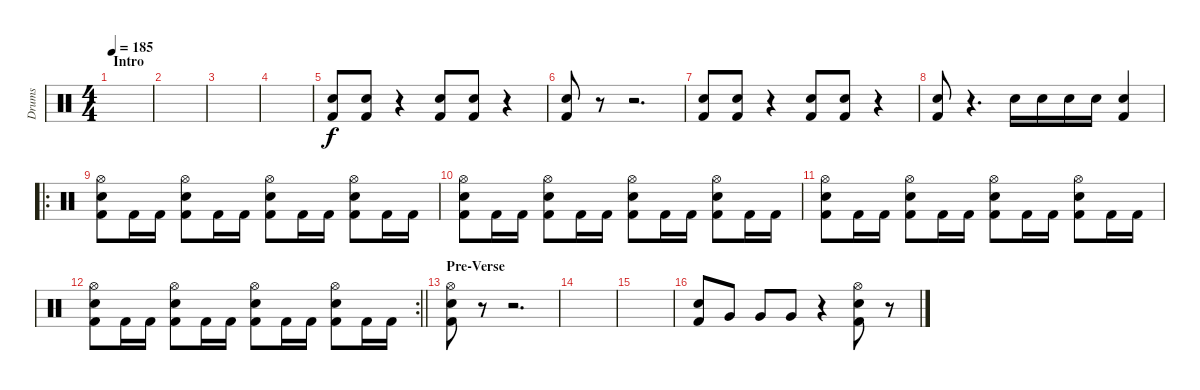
\track ("Drums" "Drums") {instrument percussion}
\staff {score}
\articulation defaults
\ts (4 4)
\section ("" "Intro")
\tempo 185
\clef neutral
\ks c
|
|
|
|
("Snare (hit) 2" "Kick (hit) 2").8 ("Snare (hit) 2" "Kick (hit) 2").8 r.4 ("Snare (hit) 2" "Kick (hit) 2").8 ("Snare (hit) 2" "Kick (hit) 2").8 r.4 |
("Snare (hit) 2" "Kick (hit) 2").8 r.8 r.2{d} |
("Snare (hit) 2" "Kick (hit) 2").8 ("Snare (hit) 2" "Kick (hit) 2").8 r.4 ("Snare (hit) 2" "Kick (hit) 2").8 ("Snare (hit) 2" "Kick (hit) 2").8 r.4 |
("Snare (hit) 2" "Kick (hit) 2").8 r.4{d} "Snare (hit) 2".16 "Snare (hit) 2".16 "Snare (hit) 2".16 "Snare (hit) 2".16 ("Snare (hit) 2" "Kick (hit) 2").4 |
\ro
("Hi-Hat (open)" "Snare (hit) 2" "Kick (hit) 2").8 "Kick (hit) 2".16 "Kick (hit) 2".16 ("Hi-Hat (open)" "Snare (hit) 2" "Kick (hit) 2").8 "Kick (hit) 2".16 "Kick (hit) 2".16 ("Hi-Hat (open)" "Snare (hit) 2" "Kick (hit) 2").8 "Kick (hit) 2".16 "Kick (hit) 2".16 ("Hi-Hat (open)" "Snare (hit) 2" "Kick (hit) 2").8 "Kick (hit) 2".16 "Kick (hit) 2".16 |
("Hi-Hat (open)" "Snare (hit) 2" "Kick (hit) 2").8 "Kick (hit) 2".16 "Kick (hit) 2".16 ("Hi-Hat (open)" "Snare (hit) 2" "Kick (hit) 2").8 "Kick (hit) 2".16 "Kick (hit) 2".16 ("Hi-Hat (open)" "Snare (hit) 2" "Kick (hit) 2").8 "Kick (hit) 2".16 "Kick (hit) 2".16 ("Hi-Hat (open)" "Snare (hit) 2" "Kick (hit) 2").8 "Kick (hit) 2".16 "Kick (hit) 2".16 |
("Hi-Hat (open)" "Snare (hit) 2" "Kick (hit) 2").8 "Kick (hit) 2".16 "Kick (hit) 2".16 ("Hi-Hat (open)" "Snare (hit) 2" "Kick (hit) 2").8 "Kick (hit) 2".16 "Kick (hit) 2".16 ("Hi-Hat (open)" "Snare (hit) 2" "Kick (hit) 2").8 "Kick (hit) 2".16 "Kick (hit) 2".16 ("Hi-Hat (open)" "Snare (hit) 2" "Kick (hit) 2").8 "Kick (hit) 2".16 "Kick (hit) 2".16 |
\rc 2
\barLineRight lightlight
("Hi-Hat (open)" "Snare (hit) 2" "Kick (hit) 2").8 "Kick (hit) 2".16 "Kick (hit) 2".16 ("Hi-Hat (open)" "Snare (hit) 2" "Kick (hit) 2").8 "Kick (hit) 2".16 "Kick (hit) 2".16 ("Hi-Hat (open)" "Snare (hit) 2" "Kick (hit) 2").8 "Kick (hit) 2".16 "Kick (hit) 2".16 ("Hi-Hat (open)" "Snare (hit) 2" "Kick (hit) 2").8 "Kick (hit) 2".16 "Kick (hit) 2".16 |
\section ("" "Pre-Verse")
("Hi-Hat (open)" "Snare (hit) 2" "Kick (hit) 2").8 r.8 r.2{d} |
|
|
("Snare (hit) 2" "Kick (hit) 2").8 "Very Low Tom (hit)".8 "Very Low Tom (hit)".8 "Very Low Tom (hit)".8 r.4 ("Hi-Hat (open)" "Snare (hit) 2" "Kick (hit) 2").8 r.8
